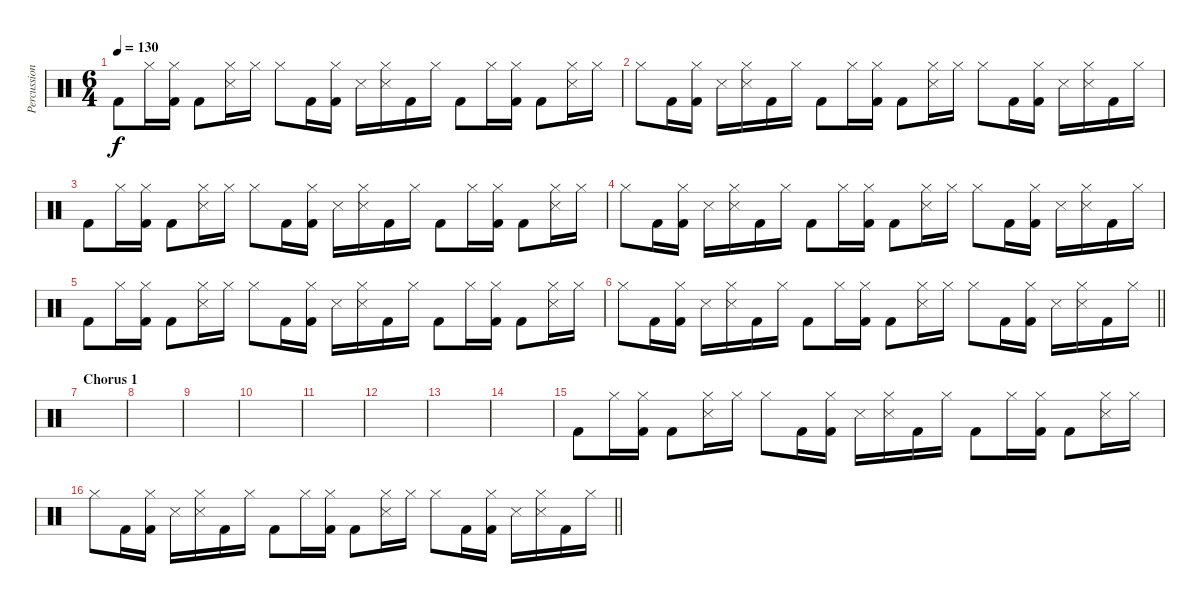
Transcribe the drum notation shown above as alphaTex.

\track ("Percussion" "Percussion") {instrument percussion}
\staff {score}
\articulation defaults
\ts (6 4)
\tempo 130
\clef neutral
\ks c "Kick (hit) 2".8{dy f} "Hi-Hat (closed)".16
("Hi-Hat (closed)" "Kick (hit) 2").16 "Kick (hit) 2".8 ("Hi-Hat (closed)" "Snare (side stick) 3").16 "Hi-Hat (closed)".16 "Hi-Hat (closed)".8 "Kick (hit) 2".16 ("Hi-Hat (closed)" "Kick (hit) 2").16 "Snare (side stick) 3".16 ("Hi-Hat (closed)" "Snare (side stick) 3").16 "Kick (hit) 2".16 "Hi-Hat (closed)".16 "Kick (hit) 2".8 "Hi-Hat (closed)".16 ("Hi-Hat (closed)" "Kick (hit) 2").16 "Kick (hit) 2".8 ("Hi-Hat (closed)" "Snare (side stick) 3").16 "Hi-Hat (closed)".16 |
"Hi-Hat (closed)".8 "Kick (hit) 2".16 ("Hi-Hat (closed)" "Kick (hit) 2").16 "Snare (side stick) 3".16 ("Hi-Hat (closed)" "Snare (side stick) 3").16 "Kick (hit) 2".16 "Hi-Hat (closed)".16 "Kick (hit) 2".8 "Hi-Hat (closed)".16 ("Hi-Hat (closed)" "Kick (hit) 2").16 "Kick (hit) 2".8 ("Hi-Hat (closed)" "Snare (side stick) 3").16 "Hi-Hat (closed)".16 "Hi-Hat (closed)".8 "Kick (hit) 2".16 ("Hi-Hat (closed)" "Kick (hit) 2").16 "Snare (side stick) 3".16 ("Hi-Hat (closed)" "Snare (side stick) 3").16 "Kick (hit) 2".16 "Hi-Hat (closed)".16 |
"Kick (hit) 2".8 "Hi-Hat (closed)".16 ("Hi-Hat (closed)" "Kick (hit) 2").16 "Kick (hit) 2".8 ("Hi-Hat (closed)" "Snare (side stick) 3").16 "Hi-Hat (closed)".16 "Hi-Hat (closed)".8 "Kick (hit) 2".16 ("Hi-Hat (closed)" "Kick (hit) 2").16 "Snare (side stick) 3".16 ("Hi-Hat (closed)" "Snare (side stick) 3").16 "Kick (hit) 2".16 "Hi-Hat (closed)".16 "Kick (hit) 2".8 "Hi-Hat (closed)".16 ("Hi-Hat (closed)" "Kick (hit) 2").16 "Kick (hit) 2".8 ("Hi-Hat (closed)" "Snare (side stick) 3").16 "Hi-Hat (closed)".16 |
"Hi-Hat (closed)".8 "Kick (hit) 2".16 ("Hi-Hat (closed)" "Kick (hit) 2").16 "Snare (side stick) 3".16 ("Hi-Hat (closed)" "Snare (side stick) 3").16 "Kick (hit) 2".16 "Hi-Hat (closed)".16 "Kick (hit) 2".8 "Hi-Hat (closed)".16 ("Hi-Hat (closed)" "Kick (hit) 2").16 "Kick (hit) 2".8 ("Hi-Hat (closed)" "Snare (side stick) 3").16 "Hi-Hat (closed)".16 "Hi-Hat (closed)".8 "Kick (hit) 2".16 ("Hi-Hat (closed)" "Kick (hit) 2").16 "Snare (side stick) 3".16 ("Hi-Hat (closed)" "Snare (side stick) 3").16 "Kick (hit) 2".16 "Hi-Hat (closed)".16 |
"Kick (hit) 2".8 "Hi-Hat (closed)".16 ("Hi-Hat (closed)" "Kick (hit) 2").16 "Kick (hit) 2".8 ("Hi-Hat (closed)" "Snare (side stick) 3").16 "Hi-Hat (closed)".16 "Hi-Hat (closed)".8 "Kick (hit) 2".16 ("Hi-Hat (closed)" "Kick (hit) 2").16 "Snare (side stick) 3".16 ("Hi-Hat (closed)" "Snare (side stick) 3").16 "Kick (hit) 2".16 "Hi-Hat (closed)".16 "Kick (hit) 2".8 "Hi-Hat (closed)".16 ("Hi-Hat (closed)" "Kick (hit) 2").16 "Kick (hit) 2".8 ("Hi-Hat (closed)" "Snare (side stick) 3").16 "Hi-Hat (closed)".16 |
\barLineRight lightlight "Hi-Hat (closed)".8 "Kick (hit) 2".16
("Hi-Hat (closed)" "Kick (hit) 2").16 "Snare (side stick) 3".16 ("Hi-Hat (closed)" "Snare (side stick) 3").16 "Kick (hit) 2".16 "Hi-Hat (closed)".16 "Kick (hit) 2".8 "Hi-Hat (closed)".16 ("Hi-Hat (closed)" "Kick (hit) 2").16 "Kick (hit) 2".8 ("Hi-Hat (closed)" "Snare (side stick) 3").16 "Hi-Hat (closed)".16 "Hi-Hat (closed)".8 "Kick (hit) 2".16 ("Hi-Hat (closed)" "Kick (hit) 2").16 "Snare (side stick) 3".16 ("Hi-Hat (closed)" "Snare (side stick) 3").16 "Kick (hit) 2".16 "Hi-Hat (closed)".16 |
\section ("" "Chorus 1")
|
|
|
|
|
|
|
|
"Kick (hit) 2".8 "Hi-Hat (closed)".16 ("Hi-Hat (closed)" "Kick (hit) 2").16 "Kick (hit) 2".8 ("Hi-Hat (closed)" "Snare (side stick) 3").16 "Hi-Hat (closed)".16 "Hi-Hat (closed)".8 "Kick (hit) 2".16 ("Hi-Hat (closed)" "Kick (hit) 2").16 "Snare (side stick) 3".16 ("Hi-Hat (closed)" "Snare (side stick) 3").16 "Kick (hit) 2".16 "Hi-Hat (closed)".16 "Kick (hit) 2".8 "Hi-Hat (closed)".16 ("Hi-Hat (closed)" "Kick (hit) 2").16 "Kick (hit) 2".8 ("Hi-Hat (closed)" "Snare (side stick) 3").16 "Hi-Hat (closed)".16 |
\barLineRight lightlight "Hi-Hat (closed)".8 "Kick (hit) 2".16
("Hi-Hat (closed)" "Kick (hit) 2").16 "Snare (side stick) 3".16 ("Hi-Hat (closed)" "Snare (side stick) 3").16 "Kick (hit) 2".16 "Hi-Hat (closed)".16 "Kick (hit) 2".8 "Hi-Hat (closed)".16 ("Hi-Hat (closed)" "Kick (hit) 2").16 "Kick (hit) 2".8 ("Hi-Hat (closed)" "Snare (side stick) 3").16 "Hi-Hat (closed)".16 "Hi-Hat (closed)".8 "Kick (hit) 2".16 ("Hi-Hat (closed)" "Kick (hit) 2").16 "Snare (side stick) 3".16 ("Hi-Hat (closed)" "Snare (side stick) 3").16 "Kick (hit) 2".16 "Hi-Hat (closed)".16
